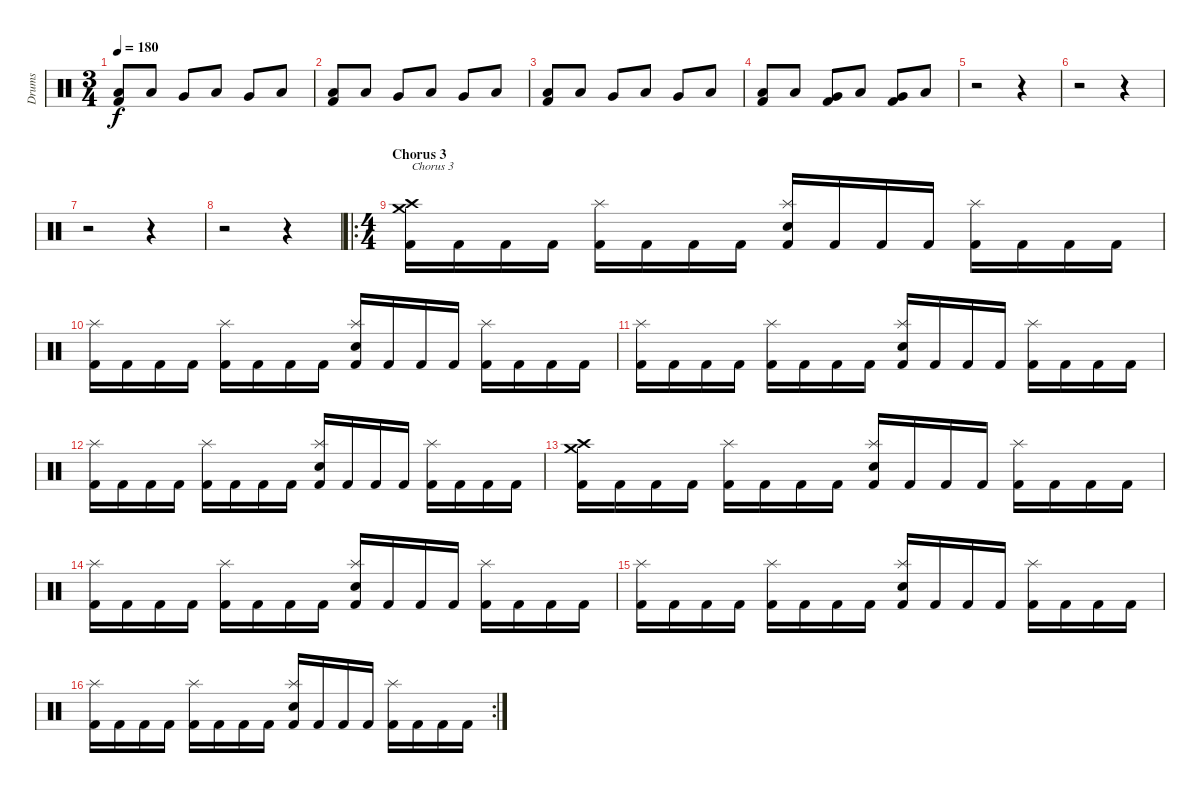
\track ("Drums" "Drums") {instrument percussion}
\staff {score}
\articulation defaults
\ts (3 4)
\tempo 180
\clef neutral
\ks c
("Low Tom (hit)" "Kick (hit) 2").8{dy f} "Low Floor Tom (hit)".8 "Very Low Tom (hit)".8 "Low Tom (hit)".8 "Very Low Tom (hit)".8 "Low Tom (hit)".8 |
("Low Tom (hit)" "Kick (hit) 2").8 "Low Floor Tom (hit)".8 "Very Low Tom (hit)".8 "Low Tom (hit)".8 "Very Low Tom (hit)".8 "Low Tom (hit)".8 |
("Low Tom (hit)" "Kick (hit) 2").8 "Low Floor Tom (hit)".8 "Very Low Tom (hit)".8 "Low Tom (hit)".8 "Very Low Tom (hit)".8 "Low Tom (hit)".8 |
("Low Tom (hit)" "Kick (hit) 2").8 "Low Floor Tom (hit)".8 ("Very Low Tom (hit)" "Kick (hit) 2").8 "Low Tom (hit)".8 ("Very Low Tom (hit)" "Kick (hit) 2").8 "Low Tom (hit)".8 |
r.2 r.4 |
r.2 r.4 |
r.2 r.4 |
r.2 r.4 |
\ro
\ts (4 4)
\section ("" "Chorus 3")
("Crash high (hit)" "Crash medium (hit)" "Kick (hit) 2").16{txt "Chorus 3"} "Kick (hit) 2".16 "Kick (hit) 2".16 "Kick (hit) 2".16 ("Splash (hit)" "Kick (hit) 2").16 "Kick (hit) 2".16 "Kick (hit) 2".16 "Kick (hit) 2".16 ("Splash (hit)" "Snare (hit) 2" "Kick (hit) 2").16 "Kick (hit) 2".16 "Kick (hit) 2".16 "Kick (hit) 2".16 ("Splash (hit)" "Kick (hit) 2").16 "Kick (hit) 2".16 "Kick (hit) 2".16 "Kick (hit) 2".16 |
("Splash (hit)" "Kick (hit) 2").16 "Kick (hit) 2".16 "Kick (hit) 2".16 "Kick (hit) 2".16 ("Splash (hit)" "Kick (hit) 2").16 "Kick (hit) 2".16 "Kick (hit) 2".16 "Kick (hit) 2".16 ("Splash (hit)" "Snare (hit) 2" "Kick (hit) 2").16 "Kick (hit) 2".16 "Kick (hit) 2".16 "Kick (hit) 2".16 ("Splash (hit)" "Kick (hit) 2").16 "Kick (hit) 2".16 "Kick (hit) 2".16 "Kick (hit) 2".16 |
("Splash (hit)" "Kick (hit) 2").16 "Kick (hit) 2".16 "Kick (hit) 2".16 "Kick (hit) 2".16 ("Splash (hit)" "Kick (hit) 2").16 "Kick (hit) 2".16 "Kick (hit) 2".16 "Kick (hit) 2".16 ("Splash (hit)" "Snare (hit) 2" "Kick (hit) 2").16 "Kick (hit) 2".16 "Kick (hit) 2".16 "Kick (hit) 2".16 ("Splash (hit)" "Kick (hit) 2").16 "Kick (hit) 2".16 "Kick (hit) 2".16 "Kick (hit) 2".16 |
("Splash (hit)" "Kick (hit) 2").16 "Kick (hit) 2".16 "Kick (hit) 2".16 "Kick (hit) 2".16 ("Splash (hit)" "Kick (hit) 2").16 "Kick (hit) 2".16 "Kick (hit) 2".16 "Kick (hit) 2".16 ("Splash (hit)" "Snare (hit) 2" "Kick (hit) 2").16 "Kick (hit) 2".16 "Kick (hit) 2".16 "Kick (hit) 2".16 ("Splash (hit)" "Kick (hit) 2").16 "Kick (hit) 2".16 "Kick (hit) 2".16 "Kick (hit) 2".16 |
("Crash high (hit)" "Crash medium (hit)" "Kick (hit) 2").16 "Kick (hit) 2".16 "Kick (hit) 2".16 "Kick (hit) 2".16 ("Splash (hit)" "Kick (hit) 2").16 "Kick (hit) 2".16 "Kick (hit) 2".16 "Kick (hit) 2".16 ("Splash (hit)" "Snare (hit) 2" "Kick (hit) 2").16 "Kick (hit) 2".16 "Kick (hit) 2".16 "Kick (hit) 2".16 ("Splash (hit)" "Kick (hit) 2").16 "Kick (hit) 2".16 "Kick (hit) 2".16 "Kick (hit) 2".16 |
("Splash (hit)" "Kick (hit) 2").16 "Kick (hit) 2".16 "Kick (hit) 2".16 "Kick (hit) 2".16 ("Splash (hit)" "Kick (hit) 2").16 "Kick (hit) 2".16 "Kick (hit) 2".16 "Kick (hit) 2".16 ("Splash (hit)" "Snare (hit) 2" "Kick (hit) 2").16 "Kick (hit) 2".16 "Kick (hit) 2".16 "Kick (hit) 2".16 ("Splash (hit)" "Kick (hit) 2").16 "Kick (hit) 2".16 "Kick (hit) 2".16 "Kick (hit) 2".16 |
("Splash (hit)" "Kick (hit) 2").16 "Kick (hit) 2".16 "Kick (hit) 2".16 "Kick (hit) 2".16 ("Splash (hit)" "Kick (hit) 2").16 "Kick (hit) 2".16 "Kick (hit) 2".16 "Kick (hit) 2".16 ("Splash (hit)" "Snare (hit) 2" "Kick (hit) 2").16 "Kick (hit) 2".16 "Kick (hit) 2".16 "Kick (hit) 2".16 ("Splash (hit)" "Kick (hit) 2").16 "Kick (hit) 2".16 "Kick (hit) 2".16 "Kick (hit) 2".16 |
\rc 2
("Splash (hit)" "Kick (hit) 2").16 "Kick (hit) 2".16 "Kick (hit) 2".16 "Kick (hit) 2".16 ("Splash (hit)" "Kick (hit) 2").16 "Kick (hit) 2".16 "Kick (hit) 2".16 "Kick (hit) 2".16 ("Splash (hit)" "Snare (hit) 2" "Kick (hit) 2").16 "Kick (hit) 2".16 "Kick (hit) 2".16 "Kick (hit) 2".16 ("Splash (hit)" "Kick (hit) 2").16 "Kick (hit) 2".16 "Kick (hit) 2".16 "Kick (hit) 2".16
